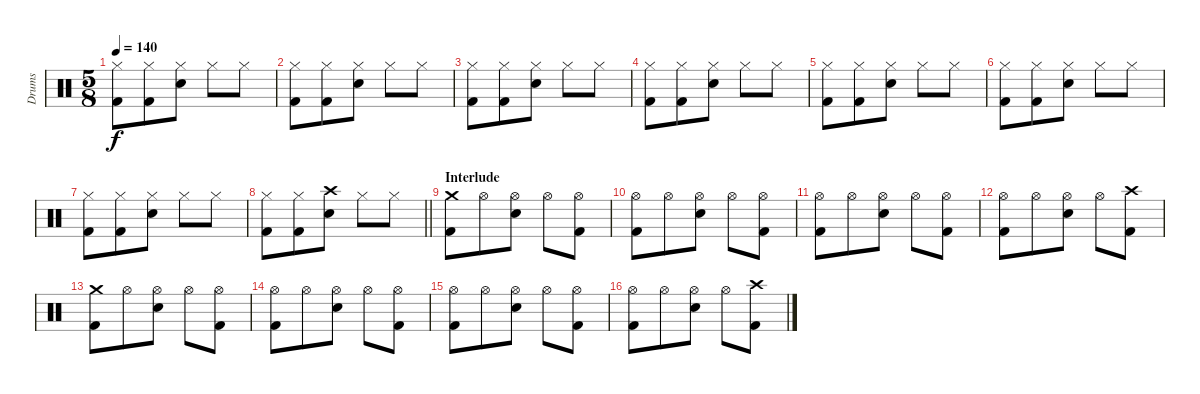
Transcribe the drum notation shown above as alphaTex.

\track ("Drums" "Drums") {instrument percussion}
\staff {score}
\articulation defaults
\ts (5 8)
\tempo 140
\clef neutral
\ks c
("Hi-Hat (closed)" "Kick (hit) 2").8{dy f} ("Hi-Hat (closed)" "Kick (hit) 2").8 ("Hi-Hat (closed)" "Electric Snare (hit)").8 "Hi-Hat (closed)".8 "Hi-Hat (closed)".8 |
("Hi-Hat (closed)" "Kick (hit) 2").8 ("Hi-Hat (closed)" "Kick (hit) 2").8 ("Hi-Hat (closed)" "Electric Snare (hit)").8 "Hi-Hat (closed)".8 "Hi-Hat (closed)".8 |
("Hi-Hat (closed)" "Kick (hit) 2").8 ("Hi-Hat (closed)" "Kick (hit) 2").8 ("Hi-Hat (closed)" "Electric Snare (hit)").8 "Hi-Hat (closed)".8 "Hi-Hat (closed)".8 |
("Hi-Hat (closed)" "Kick (hit) 2").8 ("Hi-Hat (closed)" "Kick (hit) 2").8 ("Hi-Hat (closed)" "Electric Snare (hit)").8 "Hi-Hat (closed)".8 "Hi-Hat (closed)".8 |
("Hi-Hat (closed)" "Kick (hit) 2").8 ("Hi-Hat (closed)" "Kick (hit) 2").8 ("Hi-Hat (closed)" "Electric Snare (hit)").8 "Hi-Hat (closed)".8 "Hi-Hat (closed)".8 |
("Hi-Hat (closed)" "Kick (hit) 2").8 ("Hi-Hat (closed)" "Kick (hit) 2").8 ("Hi-Hat (closed)" "Electric Snare (hit)").8 "Hi-Hat (closed)".8 "Hi-Hat (closed)".8 |
("Hi-Hat (closed)" "Kick (hit) 2").8 ("Hi-Hat (closed)" "Kick (hit) 2").8 ("Hi-Hat (closed)" "Electric Snare (hit)").8 "Hi-Hat (closed)".8 "Hi-Hat (closed)".8 |
\barLineRight lightlight
("Hi-Hat (closed)" "Kick (hit) 2").8 ("Hi-Hat (closed)" "Kick (hit) 2").8 ("Crash high (hit)" "Electric Snare (hit)").8 "Hi-Hat (closed)".8 "Hi-Hat (closed)".8 |
\section ("" "Interlude")
("Crash medium (hit)" "Kick (hit) 2").8 "Hi-Hat (open)".8 ("Hi-Hat (open)" "Electric Snare (hit)").8 "Hi-Hat (open)".8 ("Hi-Hat (open)" "Kick (hit) 2").8 |
("Hi-Hat (open)" "Kick (hit) 2").8 "Hi-Hat (open)".8 ("Hi-Hat (open)" "Electric Snare (hit)").8 "Hi-Hat (open)".8 ("Hi-Hat (open)" "Kick (hit) 2").8 |
("Hi-Hat (open)" "Kick (hit) 2").8 "Hi-Hat (open)".8 ("Hi-Hat (open)" "Electric Snare (hit)").8 "Hi-Hat (open)".8 ("Hi-Hat (open)" "Kick (hit) 2").8 |
("Hi-Hat (open)" "Kick (hit) 2").8 "Hi-Hat (open)".8 ("Hi-Hat (open)" "Electric Snare (hit)").8 "Hi-Hat (open)".8 ("Crash high (hit)" "Kick (hit) 2").8 |
("Crash medium (hit)" "Kick (hit) 2").8 "Hi-Hat (open)".8 ("Hi-Hat (open)" "Electric Snare (hit)").8 "Hi-Hat (open)".8 ("Hi-Hat (open)" "Kick (hit) 2").8 |
("Hi-Hat (open)" "Kick (hit) 2").8 "Hi-Hat (open)".8 ("Hi-Hat (open)" "Electric Snare (hit)").8 "Hi-Hat (open)".8 ("Hi-Hat (open)" "Kick (hit) 2").8 |
("Hi-Hat (open)" "Kick (hit) 2").8 "Hi-Hat (open)".8 ("Hi-Hat (open)" "Electric Snare (hit)").8 "Hi-Hat (open)".8 ("Hi-Hat (open)" "Kick (hit) 2").8 |
("Hi-Hat (open)" "Kick (hit) 2").8 "Hi-Hat (open)".8 ("Hi-Hat (open)" "Electric Snare (hit)").8 "Hi-Hat (open)".8 ("Crash high (hit)" "Kick (hit) 2").8
